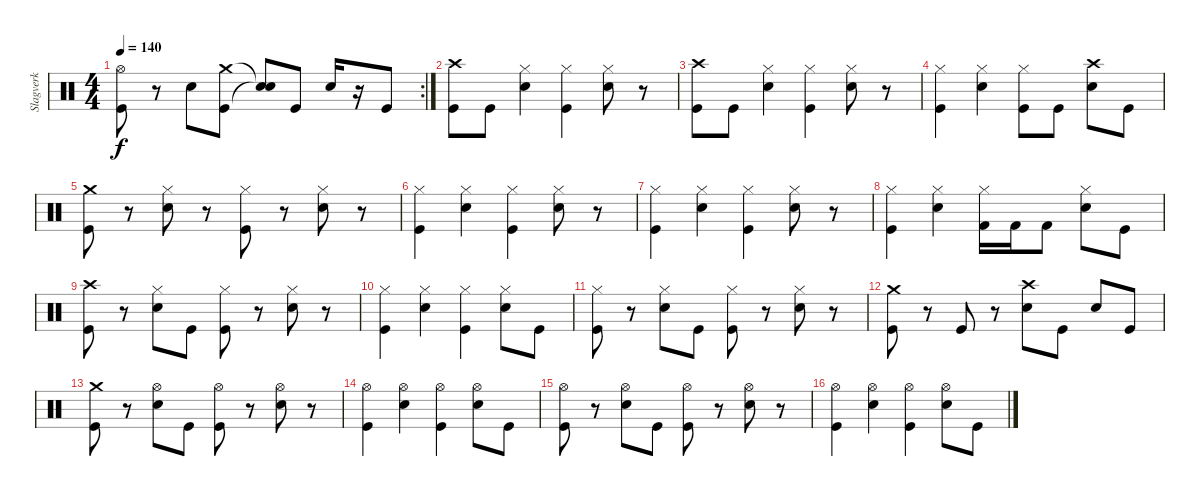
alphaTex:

\track ("Slagverk" "Slagverk") {instrument percussion}
\staff {score}
\articulation defaults
\rc 2
\ts (4 4)
\tempo 140
\clef neutral
\ks c
("Hi-Hat (open)" "Kick (hit)").8{dy f} r.8 "Electric Snare (hit)".8 ("Crash medium (hit)" "Kick (hit)").8 ("Snare (hit)"{t} "Snare (hit)"{t}).8 "Kick (hit)".8 "Electric Snare (hit)".16 r.16 "Kick (hit)".8 |
("Crash high (hit)" "Kick (hit)").8 "Kick (hit)".8 ("Hi-Hat (closed)" "Electric Snare (hit)").4 ("Hi-Hat (closed)" "Kick (hit)").4 ("Hi-Hat (closed)" "Electric Snare (hit)").8 r.8 |
("Crash high (hit)" "Kick (hit)").8 "Kick (hit)".8 ("Hi-Hat (closed)" "Electric Snare (hit)").4 ("Hi-Hat (closed)" "Kick (hit)").4 ("Hi-Hat (closed)" "Electric Snare (hit)").8 r.8 |
("Hi-Hat (closed)" "Kick (hit)").4 ("Hi-Hat (closed)" "Electric Snare (hit)").4 ("Hi-Hat (closed)" "Kick (hit)").8 "Kick (hit)".8 ("Crash high (hit)" "Electric Snare (hit)").8 "Kick (hit)".8 |
("Crash medium (hit)" "Kick (hit)").8 r.8 ("Hi-Hat (closed)" "Electric Snare (hit)").8 r.8 ("Hi-Hat (closed)" "Kick (hit)").8 r.8 ("Hi-Hat (closed)" "Electric Snare (hit)").8 r.8 |
("Hi-Hat (closed)" "Kick (hit)").4 ("Hi-Hat (closed)" "Electric Snare (hit)").4 ("Hi-Hat (closed)" "Kick (hit)").4 ("Hi-Hat (closed)" "Electric Snare (hit)").8 r.8 |
("Hi-Hat (closed)" "Kick (hit)").4 ("Hi-Hat (closed)" "Electric Snare (hit)").4 ("Hi-Hat (closed)" "Kick (hit)").4 ("Hi-Hat (closed)" "Electric Snare (hit)").8 r.8 |
("Hi-Hat (closed)" "Kick (hit)").4 ("Hi-Hat (closed)" "Electric Snare (hit)").4 ("Hi-Hat (closed)" "Kick (hit) 2").16 "Kick (hit) 2".16 "Kick (hit) 2".8 ("Hi-Hat (closed)" "Electric Snare (hit)").8 "Kick (hit)".8 |
("Crash high (hit)" "Kick (hit)").8 r.8 ("Hi-Hat (closed)" "Electric Snare (hit)").8 "Kick (hit)".8 ("Hi-Hat (closed)" "Kick (hit)").8 r.8 ("Hi-Hat (closed)" "Electric Snare (hit)").8 r.8 |
("Hi-Hat (closed)" "Kick (hit)").4 ("Hi-Hat (closed)" "Electric Snare (hit)").4 ("Hi-Hat (closed)" "Kick (hit)").4 ("Hi-Hat (closed)" "Electric Snare (hit)").8 "Kick (hit)".8 |
("Hi-Hat (closed)" "Kick (hit)").8 r.8 ("Hi-Hat (closed)" "Electric Snare (hit)").8 "Kick (hit)".8 ("Hi-Hat (closed)" "Kick (hit)").8 r.8 ("Hi-Hat (closed)" "Electric Snare (hit)").8 r.8 |
("Crash medium (hit)" "Kick (hit)").8 r.8 "Kick (hit)".8 r.8 ("Crash high (hit)" "Electric Snare (hit)").8 "Kick (hit)".8 "Electric Snare (hit)".8 "Kick (hit)".8 |
("Crash medium (hit)" "Kick (hit)").8 r.8 ("Hi-Hat (open)" "Electric Snare (hit)").8 "Kick (hit)".8 ("Hi-Hat (open)" "Kick (hit)").8 r.8 ("Hi-Hat (open)" "Electric Snare (hit)").8 r.8 |
("Hi-Hat (open)" "Kick (hit)").4 ("Hi-Hat (open)" "Electric Snare (hit)").4 ("Hi-Hat (open)" "Kick (hit)").4 ("Hi-Hat (open)" "Electric Snare (hit)").8 "Kick (hit)".8 |
("Hi-Hat (open)" "Kick (hit)").8 r.8 ("Hi-Hat (open)" "Electric Snare (hit)").8 "Kick (hit)".8 ("Hi-Hat (open)" "Kick (hit)").8 r.8 ("Hi-Hat (open)" "Electric Snare (hit)").8 r.8 |
("Hi-Hat (open)" "Kick (hit)").4 ("Hi-Hat (open)" "Electric Snare (hit)").4 ("Hi-Hat (open)" "Kick (hit)").4 ("Hi-Hat (open)" "Electric Snare (hit)").8 "Kick (hit)".8
